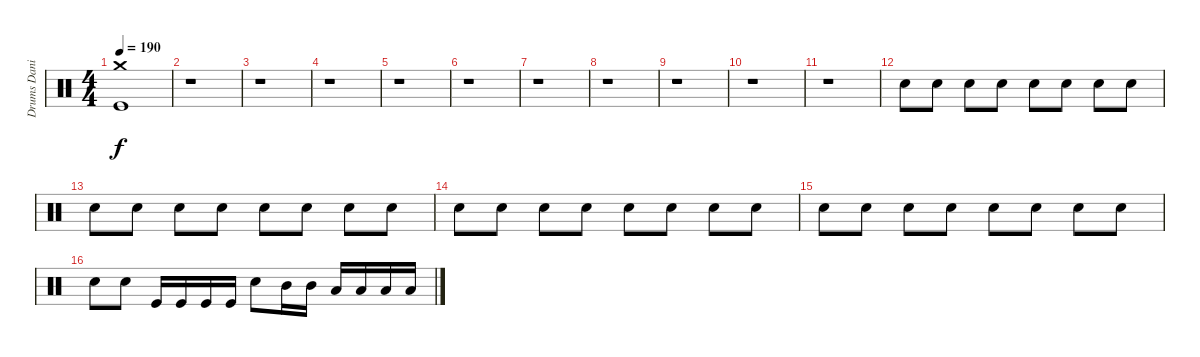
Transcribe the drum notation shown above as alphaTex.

\track ("Drums Daniel" "Drums Dani") {instrument percussion}
\staff {score}
\articulation defaults
\ts (4 4)
\tempo 190
\clef neutral
\ks c
("Kick (hit)" "Crash medium (hit)").1{dy f} |
r.1 |
r.1 |
r.1 |
r.1{volume 0} |
r.1 |
r.1 |
r.1 |
r.1 |
r.1 |
r.1 |
"Electric Snare (hit)".8{volume 14} "Electric Snare (hit)".8 "Electric Snare (hit)".8 "Electric Snare (hit)".8 "Electric Snare (hit)".8 "Electric Snare (hit)".8 "Electric Snare (hit)".8 "Electric Snare (hit)".8 |
"Electric Snare (hit)".8 "Electric Snare (hit)".8 "Electric Snare (hit)".8 "Electric Snare (hit)".8 "Electric Snare (hit)".8 "Electric Snare (hit)".8 "Electric Snare (hit)".8 "Electric Snare (hit)".8 |
"Electric Snare (hit)".8 "Electric Snare (hit)".8 "Electric Snare (hit)".8 "Electric Snare (hit)".8 "Electric Snare (hit)".8 "Electric Snare (hit)".8 "Electric Snare (hit)".8 "Electric Snare (hit)".8 |
"Electric Snare (hit)".8 "Electric Snare (hit)".8 "Electric Snare (hit)".8 "Electric Snare (hit)".8 "Electric Snare (hit)".8 "Electric Snare (hit)".8 "Electric Snare (hit)".8 "Electric Snare (hit)".8 |
"Electric Snare (hit)".8 "Electric Snare (hit)".8 "Kick (hit)".16 "Kick (hit)".16 "Kick (hit)".16 "Kick (hit)".16 "Electric Snare (hit)".8 "Mid Tom (hit)".16 "Mid Tom (hit)".16 "Low Tom (hit)".16 "Low Tom (hit)".16 "Low Tom (hit)".16 "Low Tom (hit)".16
